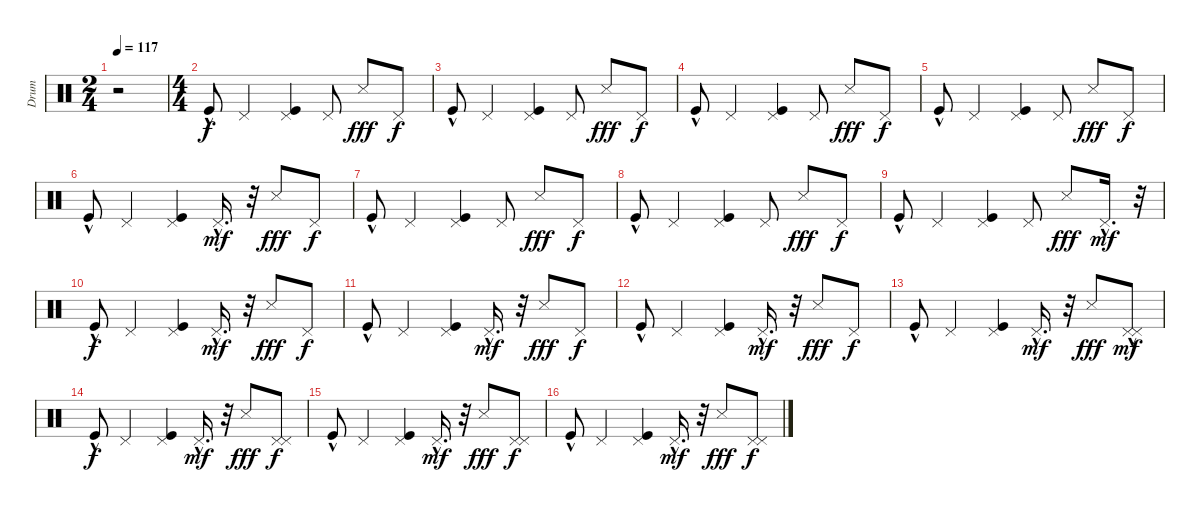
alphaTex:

\track ("Drum" "Drum") {instrument percussion}
\staff {score}
\articulation defaults
\ts (2 4)
\tempo 117
\clef neutral
\ks c
r.2{dy f} |
\ts (4 4)
"Kick (hit)"{hac}.8 "Pedal Hi-Hat (hit)".4 ("Pedal Hi-Hat (hit)" "Kick (hit)").4 "Pedal Hi-Hat (hit)".8 "Snare (side stick) 3".8{dy fff} "Pedal Hi-Hat (hit)".8{dy f} |
"Kick (hit)"{hac}.8 "Pedal Hi-Hat (hit)".4 ("Pedal Hi-Hat (hit)" "Kick (hit)").4 "Pedal Hi-Hat (hit)".8 "Snare (side stick) 3".8{dy fff} "Pedal Hi-Hat (hit)".8{dy f} |
"Kick (hit)"{hac}.8 "Pedal Hi-Hat (hit)".4 ("Pedal Hi-Hat (hit)" "Kick (hit)").4 "Pedal Hi-Hat (hit)".8 "Snare (side stick) 3".8{dy fff} "Pedal Hi-Hat (hit)".8{dy f} |
"Kick (hit)"{hac}.8 "Pedal Hi-Hat (hit)".4 ("Pedal Hi-Hat (hit)" "Kick (hit)").4 "Pedal Hi-Hat (hit)".8 "Snare (side stick) 3".8{dy fff} "Pedal Hi-Hat (hit)".8{dy f} |
"Kick (hit)"{hac}.8 "Pedal Hi-Hat (hit)".4 ("Pedal Hi-Hat (hit)" "Kick (hit)").4 "Pedal Hi-Hat (hit)"{hac}.16{d dy mf} r.32 "Snare (side stick) 3".8{dy fff} "Pedal Hi-Hat (hit)".8{dy f} |
"Kick (hit)"{hac}.8 "Pedal Hi-Hat (hit)".4 ("Pedal Hi-Hat (hit)" "Kick (hit)").4 "Pedal Hi-Hat (hit)".8 "Snare (side stick) 3".8{dy fff} "Pedal Hi-Hat (hit)".8{dy f} |
"Kick (hit)"{hac}.8 "Pedal Hi-Hat (hit)".4 ("Pedal Hi-Hat (hit)" "Kick (hit)").4 "Pedal Hi-Hat (hit)".8 "Snare (side stick) 3".8{dy fff} "Pedal Hi-Hat (hit)".8{dy f} |
"Kick (hit)"{hac}.8 "Pedal Hi-Hat (hit)".4 ("Pedal Hi-Hat (hit)" "Kick (hit)").4 "Pedal Hi-Hat (hit)".8 "Snare (side stick) 3".8{dy fff} "Pedal Hi-Hat (hit)"{hac}.16{d dy mf} r.32 |
"Kick (hit)"{hac}.8{dy f} "Pedal Hi-Hat (hit)".4 ("Pedal Hi-Hat (hit)" "Kick (hit)").4 "Pedal Hi-Hat (hit)"{hac}.16{d dy mf} r.32 "Snare (side stick) 3".8{dy fff} "Pedal Hi-Hat (hit)".8{dy f} |
"Kick (hit)"{hac}.8 "Pedal Hi-Hat (hit)".4 ("Pedal Hi-Hat (hit)" "Kick (hit)").4 "Pedal Hi-Hat (hit)"{hac}.16{d dy mf} r.32 "Snare (side stick) 3".8{dy fff} "Pedal Hi-Hat (hit)".8{dy f} |
"Kick (hit)"{hac}.8 "Pedal Hi-Hat (hit)".4 ("Pedal Hi-Hat (hit)" "Kick (hit)").4 "Pedal Hi-Hat (hit)"{hac}.16{d dy mf} r.32 "Snare (side stick) 3".8{dy fff} "Pedal Hi-Hat (hit)".8{dy f} |
"Kick (hit)"{hac}.8 "Pedal Hi-Hat (hit)".4 ("Pedal Hi-Hat (hit)" "Kick (hit)").4 "Pedal Hi-Hat (hit)"{hac}.16{d dy mf} r.32 "Snare (side stick) 3".8{dy fff} ("Pedal Hi-Hat (hit)" "Pedal Hi-Hat (hit)"{hac}).8{dy mf} |
"Kick (hit)"{hac}.8{dy f} "Pedal Hi-Hat (hit)".4 ("Pedal Hi-Hat (hit)" "Kick (hit)").4 "Pedal Hi-Hat (hit)"{hac}.16{d dy mf} r.32 "Snare (side stick) 3".8{dy fff} ("Pedal Hi-Hat (hit)" "Pedal Hi-Hat (hit)").8{dy f} |
"Kick (hit)"{hac}.8 "Pedal Hi-Hat (hit)".4 ("Pedal Hi-Hat (hit)" "Kick (hit)").4 "Pedal Hi-Hat (hit)"{hac}.16{d dy mf} r.32 "Snare (side stick) 3".8{dy fff} ("Pedal Hi-Hat (hit)" "Pedal Hi-Hat (hit)").8{dy f} |
"Kick (hit)"{hac}.8 "Pedal Hi-Hat (hit)".4 ("Pedal Hi-Hat (hit)" "Kick (hit)").4 "Pedal Hi-Hat (hit)"{hac}.16{d dy mf} r.32 "Snare (side stick) 3".8{dy fff} ("Pedal Hi-Hat (hit)" "Pedal Hi-Hat (hit)").8{dy f}
